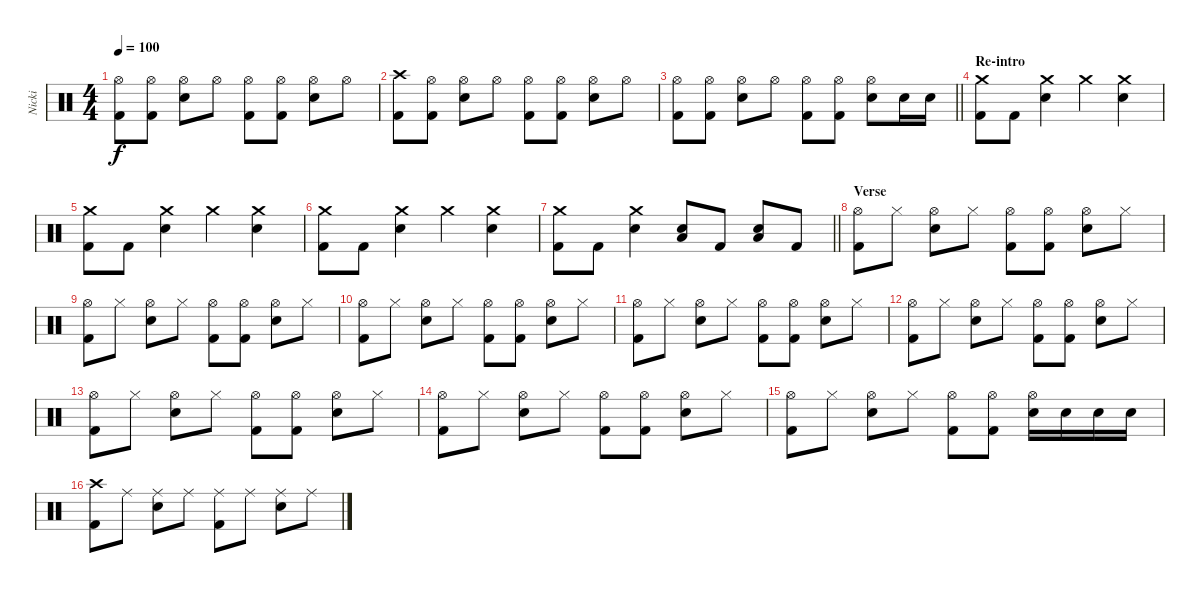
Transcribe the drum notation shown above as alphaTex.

\track ("Nicki" "Nicki") {instrument percussion}
\staff {score}
\articulation defaults
\ts (4 4)
\tempo 100
\clef neutral
\ks c
("Hi-Hat (open)" "Kick (hit) 2").8{dy f} ("Hi-Hat (open)" "Kick (hit) 2").8 ("Hi-Hat (open)" "Snare (hit) 2").8 "Hi-Hat (open)".8 ("Hi-Hat (open)" "Kick (hit) 2").8 ("Hi-Hat (open)" "Kick (hit) 2").8 ("Hi-Hat (open)" "Snare (hit) 2").8 "Hi-Hat (open)".8 |
("Crash high (hit)" "Kick (hit) 2").8 ("Hi-Hat (open)" "Kick (hit) 2").8 ("Hi-Hat (open)" "Snare (hit) 2").8 "Hi-Hat (open)".8 ("Hi-Hat (open)" "Kick (hit) 2").8 ("Hi-Hat (open)" "Kick (hit) 2").8 ("Hi-Hat (open)" "Snare (hit) 2").8 "Hi-Hat (open)".8 |
\barLineRight lightlight
("Hi-Hat (open)" "Kick (hit) 2").8 ("Hi-Hat (open)" "Kick (hit) 2").8 ("Hi-Hat (open)" "Snare (hit) 2").8 "Hi-Hat (open)".8 ("Hi-Hat (open)" "Kick (hit) 2").8 ("Hi-Hat (open)" "Kick (hit) 2").8 ("Hi-Hat (open)" "Snare (hit) 2").8 "Snare (hit) 2".16 "Snare (hit) 2".16 |
\section ("" "Re-intro")
("Crash medium (hit)" "Kick (hit) 2").8 "Kick (hit) 2".8 ("Crash medium (hit)" "Snare (hit) 2").4 "Crash medium (hit)".4 ("Crash medium (hit)" "Snare (hit) 2").4 |
("Crash medium (hit)" "Kick (hit) 2").8 "Kick (hit) 2".8 ("Crash medium (hit)" "Snare (hit) 2").4 "Crash medium (hit)".4 ("Crash medium (hit)" "Snare (hit) 2").4 |
("Crash medium (hit)" "Kick (hit) 2").8 "Kick (hit) 2".8 ("Crash medium (hit)" "Snare (hit) 2").4 "Crash medium (hit)".4 ("Crash medium (hit)" "Snare (hit) 2").4 |
\barLineRight lightlight
("Crash medium (hit)" "Kick (hit) 2").8 "Kick (hit) 2".8 ("Crash medium (hit)" "Snare (hit) 2").4 ("Low Floor Tom (hit)" "Snare (hit) 2").8 "Kick (hit) 2".8 ("Low Floor Tom (hit)" "Snare (hit) 2").8 "Kick (hit) 2".8 |
\section ("" "Verse")
("Hi-Hat (open)" "Kick (hit) 2").8 "Hi-Hat (closed)".8 ("Hi-Hat (open)" "Snare (hit) 2").8 "Hi-Hat (closed)".8 ("Hi-Hat (open)" "Kick (hit) 2").8 ("Hi-Hat (open)" "Kick (hit) 2").8 ("Hi-Hat (open)" "Snare (hit) 2").8 "Hi-Hat (closed)".8 |
("Hi-Hat (open)" "Kick (hit) 2").8 "Hi-Hat (closed)".8 ("Hi-Hat (open)" "Snare (hit) 2").8 "Hi-Hat (closed)".8 ("Hi-Hat (open)" "Kick (hit) 2").8 ("Hi-Hat (open)" "Kick (hit) 2").8 ("Hi-Hat (open)" "Snare (hit) 2").8 "Hi-Hat (closed)".8 |
("Hi-Hat (open)" "Kick (hit) 2").8 "Hi-Hat (closed)".8 ("Hi-Hat (open)" "Snare (hit) 2").8 "Hi-Hat (closed)".8 ("Hi-Hat (open)" "Kick (hit) 2").8 ("Hi-Hat (open)" "Kick (hit) 2").8 ("Hi-Hat (open)" "Snare (hit) 2").8 "Hi-Hat (closed)".8 |
("Hi-Hat (open)" "Kick (hit) 2").8 "Hi-Hat (closed)".8 ("Hi-Hat (open)" "Snare (hit) 2").8 "Hi-Hat (closed)".8 ("Hi-Hat (open)" "Kick (hit) 2").8 ("Hi-Hat (open)" "Kick (hit) 2").8 ("Hi-Hat (open)" "Snare (hit) 2").8 "Hi-Hat (closed)".8 |
("Hi-Hat (open)" "Kick (hit) 2").8 "Hi-Hat (closed)".8 ("Hi-Hat (open)" "Snare (hit) 2").8 "Hi-Hat (closed)".8 ("Hi-Hat (open)" "Kick (hit) 2").8 ("Hi-Hat (open)" "Kick (hit) 2").8 ("Hi-Hat (open)" "Snare (hit) 2").8 "Hi-Hat (closed)".8 |
("Hi-Hat (open)" "Kick (hit) 2").8 "Hi-Hat (closed)".8 ("Hi-Hat (open)" "Snare (hit) 2").8 "Hi-Hat (closed)".8 ("Hi-Hat (open)" "Kick (hit) 2").8 ("Hi-Hat (open)" "Kick (hit) 2").8 ("Hi-Hat (open)" "Snare (hit) 2").8 "Hi-Hat (closed)".8 |
("Hi-Hat (open)" "Kick (hit) 2").8 "Hi-Hat (closed)".8 ("Hi-Hat (open)" "Snare (hit) 2").8 "Hi-Hat (closed)".8 ("Hi-Hat (open)" "Kick (hit) 2").8 ("Hi-Hat (open)" "Kick (hit) 2").8 ("Hi-Hat (open)" "Snare (hit) 2").8 "Hi-Hat (closed)".8 |
("Hi-Hat (open)" "Kick (hit) 2").8 "Hi-Hat (closed)".8 ("Hi-Hat (open)" "Snare (hit) 2").8 "Hi-Hat (closed)".8 ("Hi-Hat (open)" "Kick (hit) 2").8 ("Hi-Hat (open)" "Kick (hit) 2").8 ("Hi-Hat (open)" "Snare (hit) 2").16 "Snare (hit) 2".16 "Snare (hit) 2".16 "Snare (hit) 2".16 |
("Crash high (hit)" "Kick (hit) 2").8 "Ride (middle)".8 ("Ride (middle)" "Snare (hit) 2").8 "Ride (middle)".8 ("Ride (middle)" "Kick (hit) 2").8 "Ride (middle)".8 ("Ride (middle)" "Snare (hit) 2").8 "Ride (middle)".8
